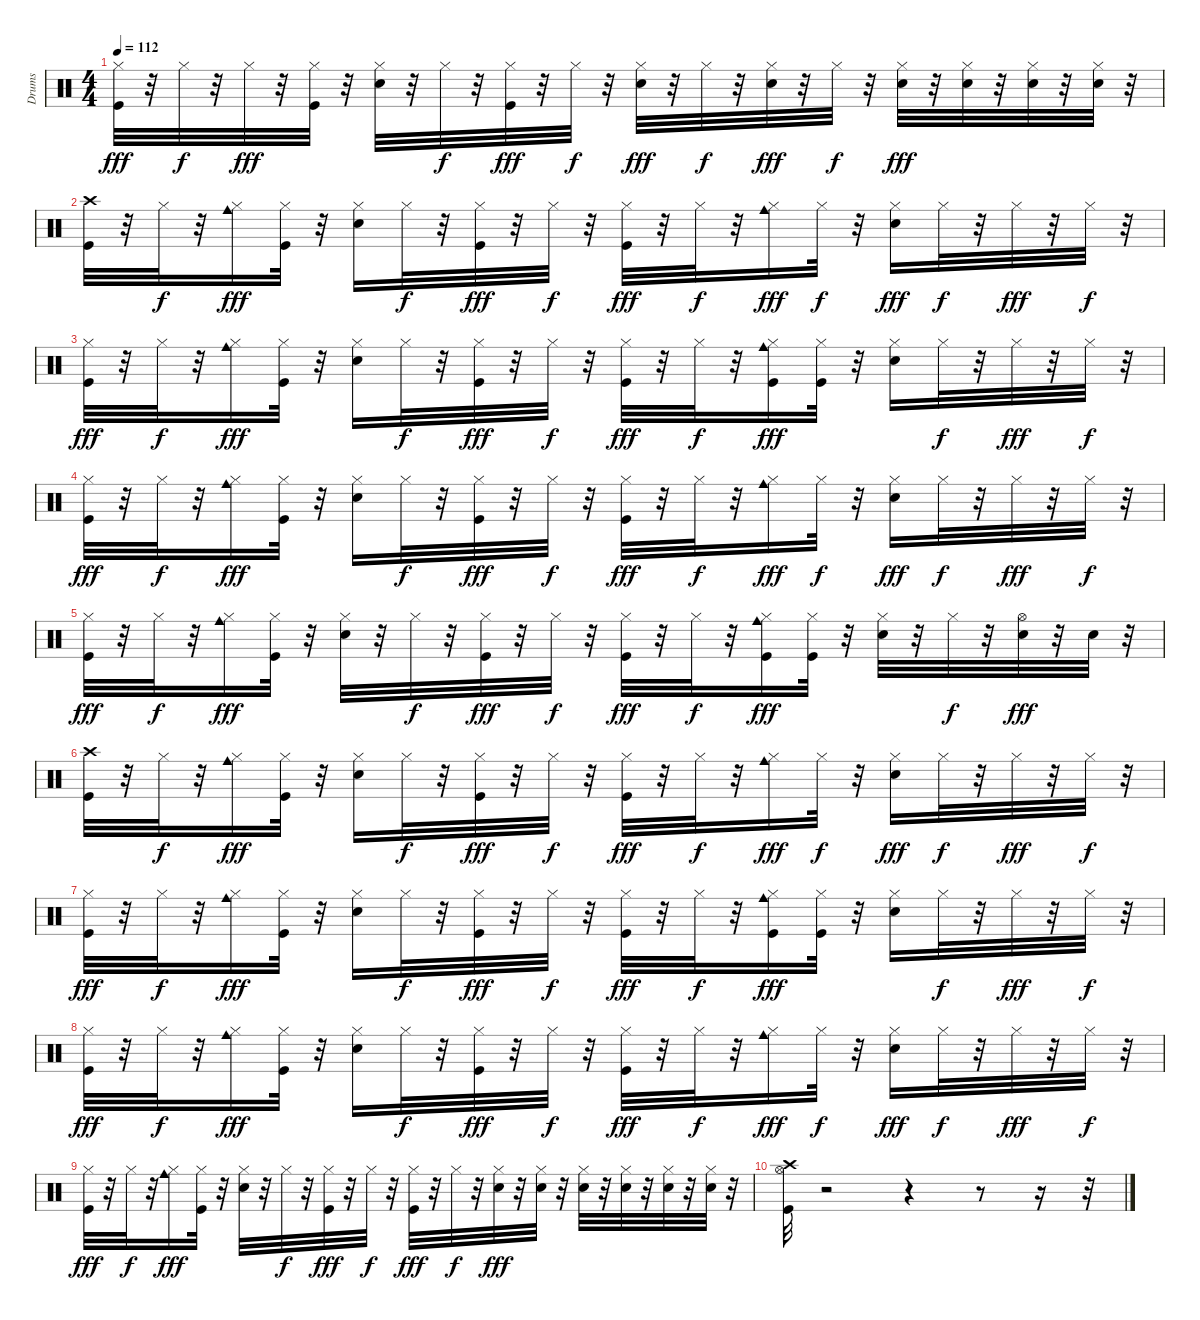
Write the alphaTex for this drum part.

\track ("Drums" "Drums") {instrument percussion}
\staff {score}
\articulation defaults
\ts (4 4)
\tempo 112
\clef neutral
\ks c
("Kick (hit)" "Hi-Hat (closed)").32{dy fff} r.32 "Hi-Hat (closed)".32{dy f} r.32 "Hi-Hat (closed)".32{dy fff} r.32 ("Kick (hit)" "Hi-Hat (closed)").32 r.32 ("Snare (hit) 2" "Hi-Hat (closed)").32 r.32 "Hi-Hat (closed)".32{dy f} r.32 ("Kick (hit)" "Hi-Hat (closed)").32{dy fff} r.32 "Hi-Hat (closed)".32{dy f} r.32 ("Snare (hit) 2" "Hi-Hat (closed)").32{dy fff} r.32 "Hi-Hat (closed)".32{dy f} r.32 ("Snare (hit) 2" "Hi-Hat (closed)").32{dy fff} r.32 "Hi-Hat (closed)".32{dy f} r.32 ("Snare (hit) 2" "Hi-Hat (closed)").32{dy fff} r.32 ("Snare (hit) 2" "Hi-Hat (closed)").32 r.32 ("Snare (hit) 2" "Hi-Hat (closed)").32 r.32 ("Snare (hit) 2" "Hi-Hat (closed)").32 r.32 |
("Kick (hit)" "Crash high (hit)").32 r.32 "Hi-Hat (closed)".32{dy f} r.32 ("Hi-Hat (closed)" "Cowbell medium (hit)").16{dy fff} ("Kick (hit)" "Hi-Hat (closed)").32 r.32 ("Snare (hit) 2" "Hi-Hat (closed)").16 "Hi-Hat (closed)".32{dy f} r.32 ("Kick (hit)" "Hi-Hat (closed)").32{dy fff} r.32 "Hi-Hat (closed)".32{dy f} r.32 ("Kick (hit)" "Hi-Hat (closed)").32{dy fff} r.32 "Hi-Hat (closed)".32{dy f} r.32 ("Hi-Hat (closed)" "Cowbell medium (hit)").16{dy fff} "Hi-Hat (closed)".32{dy f} r.32 ("Snare (hit) 2" "Hi-Hat (closed)").16{dy fff} "Hi-Hat (closed)".32{dy f} r.32 "Hi-Hat (closed)".32{dy fff} r.32 "Hi-Hat (closed)".32{dy f} r.32 |
("Kick (hit)" "Hi-Hat (closed)").32{dy fff} r.32 "Hi-Hat (closed)".32{dy f} r.32 ("Hi-Hat (closed)" "Cowbell medium (hit)").16{dy fff} ("Kick (hit)" "Hi-Hat (closed)").32 r.32 ("Snare (hit) 2" "Hi-Hat (closed)").16 "Hi-Hat (closed)".32{dy f} r.32 ("Kick (hit)" "Hi-Hat (closed)").32{dy fff} r.32 "Hi-Hat (closed)".32{dy f} r.32 ("Kick (hit)" "Hi-Hat (closed)").32{dy fff} r.32 "Hi-Hat (closed)".32{dy f} r.32 ("Kick (hit)" "Hi-Hat (closed)" "Cowbell medium (hit)").16{dy fff} ("Kick (hit)" "Hi-Hat (closed)").32 r.32 ("Snare (hit) 2" "Hi-Hat (closed)").16 "Hi-Hat (closed)".32{dy f} r.32 "Hi-Hat (closed)".32{dy fff} r.32 "Hi-Hat (closed)".32{dy f} r.32 |
("Kick (hit)" "Hi-Hat (closed)").32{dy fff} r.32 "Hi-Hat (closed)".32{dy f} r.32 ("Hi-Hat (closed)" "Cowbell medium (hit)").16{dy fff} ("Kick (hit)" "Hi-Hat (closed)").32 r.32 ("Snare (hit) 2" "Hi-Hat (closed)").16 "Hi-Hat (closed)".32{dy f} r.32 ("Kick (hit)" "Hi-Hat (closed)").32{dy fff} r.32 "Hi-Hat (closed)".32{dy f} r.32 ("Kick (hit)" "Hi-Hat (closed)").32{dy fff} r.32 "Hi-Hat (closed)".32{dy f} r.32 ("Hi-Hat (closed)" "Cowbell medium (hit)").16{dy fff} "Hi-Hat (closed)".32{dy f} r.32 ("Snare (hit) 2" "Hi-Hat (closed)").16{dy fff} "Hi-Hat (closed)".32{dy f} r.32 "Hi-Hat (closed)".32{dy fff} r.32 "Hi-Hat (closed)".32{dy f} r.32 |
("Kick (hit)" "Hi-Hat (closed)").32{dy fff} r.32 "Hi-Hat (closed)".32{dy f} r.32 ("Hi-Hat (closed)" "Cowbell medium (hit)").16{dy fff} ("Kick (hit)" "Hi-Hat (closed)").32 r.32 ("Snare (hit) 2" "Hi-Hat (closed)").32 r.32 "Hi-Hat (closed)".32{dy f} r.32 ("Kick (hit)" "Hi-Hat (closed)").32{dy fff} r.32 "Hi-Hat (closed)".32{dy f} r.32 ("Kick (hit)" "Hi-Hat (closed)").32{dy fff} r.32 "Hi-Hat (closed)".32{dy f} r.32 ("Kick (hit)" "Hi-Hat (closed)" "Cowbell medium (hit)").16{dy fff} ("Kick (hit)" "Hi-Hat (closed)").32 r.32 ("Snare (hit) 2" "Hi-Hat (closed)").32 r.32 "Hi-Hat (closed)".32{dy f} r.32 ("Snare (hit) 2" "Hi-Hat (open)").32{dy fff} r.32 "Snare (hit) 2".32 r.32 |
("Kick (hit)" "Crash high (hit)").32 r.32 "Hi-Hat (closed)".32{dy f} r.32 ("Hi-Hat (closed)" "Cowbell medium (hit)").16{dy fff} ("Kick (hit)" "Hi-Hat (closed)").32 r.32 ("Snare (hit) 2" "Hi-Hat (closed)").16 "Hi-Hat (closed)".32{dy f} r.32 ("Kick (hit)" "Hi-Hat (closed)").32{dy fff} r.32 "Hi-Hat (closed)".32{dy f} r.32 ("Kick (hit)" "Hi-Hat (closed)").32{dy fff} r.32 "Hi-Hat (closed)".32{dy f} r.32 ("Hi-Hat (closed)" "Cowbell medium (hit)").16{dy fff} "Hi-Hat (closed)".32{dy f} r.32 ("Snare (hit) 2" "Hi-Hat (closed)").16{dy fff} "Hi-Hat (closed)".32{dy f} r.32 "Hi-Hat (closed)".32{dy fff} r.32 "Hi-Hat (closed)".32{dy f} r.32 |
("Kick (hit)" "Hi-Hat (closed)").32{dy fff} r.32 "Hi-Hat (closed)".32{dy f} r.32 ("Hi-Hat (closed)" "Cowbell medium (hit)").16{dy fff} ("Kick (hit)" "Hi-Hat (closed)").32 r.32 ("Snare (hit) 2" "Hi-Hat (closed)").16 "Hi-Hat (closed)".32{dy f} r.32 ("Kick (hit)" "Hi-Hat (closed)").32{dy fff} r.32 "Hi-Hat (closed)".32{dy f} r.32 ("Kick (hit)" "Hi-Hat (closed)").32{dy fff} r.32 "Hi-Hat (closed)".32{dy f} r.32 ("Kick (hit)" "Hi-Hat (closed)" "Cowbell medium (hit)").16{dy fff} ("Kick (hit)" "Hi-Hat (closed)").32 r.32 ("Snare (hit) 2" "Hi-Hat (closed)").16 "Hi-Hat (closed)".32{dy f} r.32 "Hi-Hat (closed)".32{dy fff} r.32 "Hi-Hat (closed)".32{dy f} r.32 |
("Kick (hit)" "Hi-Hat (closed)").32{dy fff} r.32 "Hi-Hat (closed)".32{dy f} r.32 ("Hi-Hat (closed)" "Cowbell medium (hit)").16{dy fff} ("Kick (hit)" "Hi-Hat (closed)").32 r.32 ("Snare (hit) 2" "Hi-Hat (closed)").16 "Hi-Hat (closed)".32{dy f} r.32 ("Kick (hit)" "Hi-Hat (closed)").32{dy fff} r.32 "Hi-Hat (closed)".32{dy f} r.32 ("Kick (hit)" "Hi-Hat (closed)").32{dy fff} r.32 "Hi-Hat (closed)".32{dy f} r.32 ("Hi-Hat (closed)" "Cowbell medium (hit)").16{dy fff} "Hi-Hat (closed)".32{dy f} r.32 ("Snare (hit) 2" "Hi-Hat (closed)").16{dy fff} "Hi-Hat (closed)".32{dy f} r.32 "Hi-Hat (closed)".32{dy fff} r.32 "Hi-Hat (closed)".32{dy f} r.32 |
("Kick (hit)" "Hi-Hat (closed)").32{dy fff} r.32 "Hi-Hat (closed)".32{dy f} r.32 ("Hi-Hat (closed)" "Cowbell medium (hit)").16{dy fff} ("Kick (hit)" "Hi-Hat (closed)").32 r.32 ("Snare (hit) 2" "Hi-Hat (closed)").32 r.32 "Hi-Hat (closed)".32{dy f} r.32 ("Kick (hit)" "Hi-Hat (closed)").32{dy fff} r.32 "Hi-Hat (closed)".32{dy f} r.32 ("Kick (hit)" "Hi-Hat (closed)").32{dy fff} r.32 "Hi-Hat (closed)".32{dy f} r.32 ("Snare (hit) 2" "Hi-Hat (closed)").32{dy fff} r.32 ("Snare (hit) 2" "Hi-Hat (closed)").32 r.32 ("Snare (hit) 2" "Hi-Hat (closed)").32 r.32 ("Snare (hit) 2" "Hi-Hat (closed)").32 r.32 ("Snare (hit) 2" "Hi-Hat (closed)").32 r.32 ("Snare (hit) 2" "Hi-Hat (closed)").32 r.32 |
("Kick (hit)" "Hi-Hat (open)" "Crash high (hit)").32 r.2 r.4 r.8 r.16 r.32
